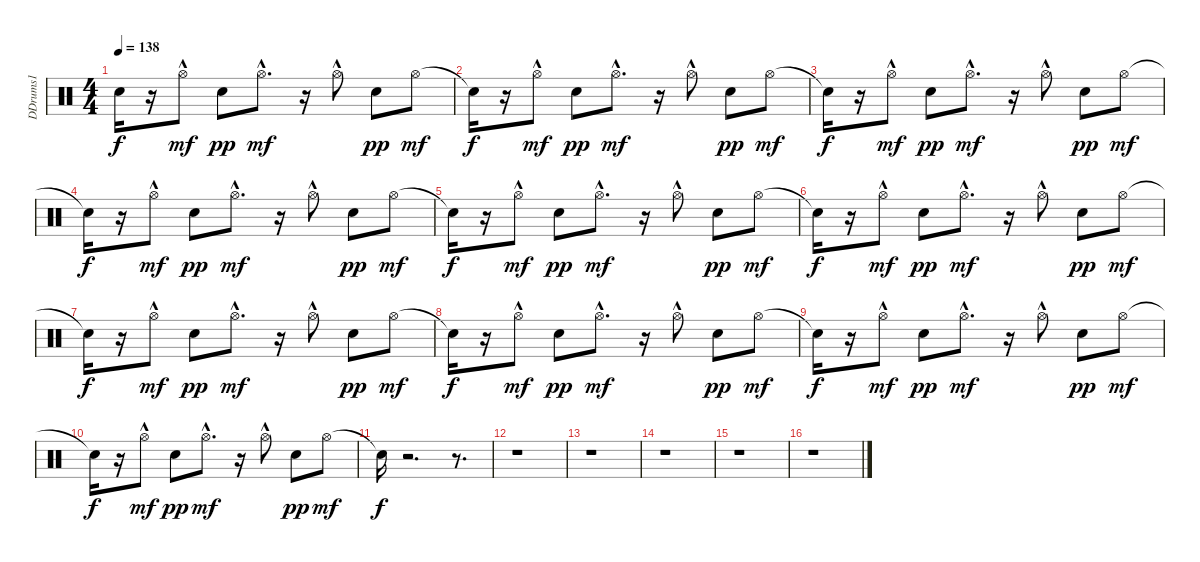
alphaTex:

\track ("DDrums1" "DDrums1") {instrument percussion}
\staff {score}
\articulation defaults
\ts (4 4)
\tempo 138
\clef neutral
\ks c "Snare (hit)"{t}.16{dy f}
r.16 "Hi-Hat (open)"{hac}.8{dy mf} "Electric Snare (hit)".8{dy pp} "Hi-Hat (open)"{hac}.8{d dy mf} r.16 "Hi-Hat (open)"{hac}.8 "Electric Snare (hit)".8{dy pp} "Hi-Hat (open)".8{dy mf} |
"Snare (hit)"{t}.16{dy f} r.16 "Hi-Hat (open)"{hac}.8{dy mf} "Electric Snare (hit)".8{dy pp} "Hi-Hat (open)"{hac}.8{d dy mf} r.16 "Hi-Hat (open)"{hac}.8 "Electric Snare (hit)".8{dy pp} "Hi-Hat (open)".8{dy mf} |
"Snare (hit)"{t}.16{dy f} r.16 "Hi-Hat (open)"{hac}.8{dy mf} "Electric Snare (hit)".8{dy pp} "Hi-Hat (open)"{hac}.8{d dy mf} r.16 "Hi-Hat (open)"{hac}.8 "Electric Snare (hit)".8{dy pp} "Hi-Hat (open)".8{dy mf} |
"Snare (hit)"{t}.16{dy f} r.16 "Hi-Hat (open)"{hac}.8{dy mf} "Electric Snare (hit)".8{dy pp} "Hi-Hat (open)"{hac}.8{d dy mf} r.16 "Hi-Hat (open)"{hac}.8 "Electric Snare (hit)".8{dy pp} "Hi-Hat (open)".8{dy mf} |
"Snare (hit)"{t}.16{dy f} r.16 "Hi-Hat (open)"{hac}.8{dy mf} "Electric Snare (hit)".8{dy pp} "Hi-Hat (open)"{hac}.8{d dy mf} r.16 "Hi-Hat (open)"{hac}.8 "Electric Snare (hit)".8{dy pp} "Hi-Hat (open)".8{dy mf} |
"Snare (hit)"{t}.16{dy f} r.16 "Hi-Hat (open)"{hac}.8{dy mf} "Electric Snare (hit)".8{dy pp} "Hi-Hat (open)"{hac}.8{d dy mf} r.16 "Hi-Hat (open)"{hac}.8 "Electric Snare (hit)".8{dy pp} "Hi-Hat (open)".8{dy mf} |
"Snare (hit)"{t}.16{dy f} r.16 "Hi-Hat (open)"{hac}.8{dy mf} "Electric Snare (hit)".8{dy pp} "Hi-Hat (open)"{hac}.8{d dy mf} r.16 "Hi-Hat (open)"{hac}.8 "Electric Snare (hit)".8{dy pp} "Hi-Hat (open)".8{dy mf} |
"Snare (hit)"{t}.16{dy f} r.16 "Hi-Hat (open)"{hac}.8{dy mf} "Electric Snare (hit)".8{dy pp} "Hi-Hat (open)"{hac}.8{d dy mf} r.16 "Hi-Hat (open)"{hac}.8 "Electric Snare (hit)".8{dy pp} "Hi-Hat (open)".8{dy mf} |
"Snare (hit)"{t}.16{dy f} r.16 "Hi-Hat (open)"{hac}.8{dy mf} "Electric Snare (hit)".8{dy pp} "Hi-Hat (open)"{hac}.8{d dy mf} r.16 "Hi-Hat (open)"{hac}.8 "Electric Snare (hit)".8{dy pp} "Hi-Hat (open)".8{dy mf} |
"Snare (hit)"{t}.16{dy f} r.16 "Hi-Hat (open)"{hac}.8{dy mf} "Electric Snare (hit)".8{dy pp} "Hi-Hat (open)"{hac}.8{d dy mf} r.16 "Hi-Hat (open)"{hac}.8 "Electric Snare (hit)".8{dy pp} "Hi-Hat (open)".8{dy mf} |
"Snare (hit)"{t}.16{dy f} r.2{d} r.8{d} |
r.1 |
r.1 |
r.1 |
r.1 |
r.1
